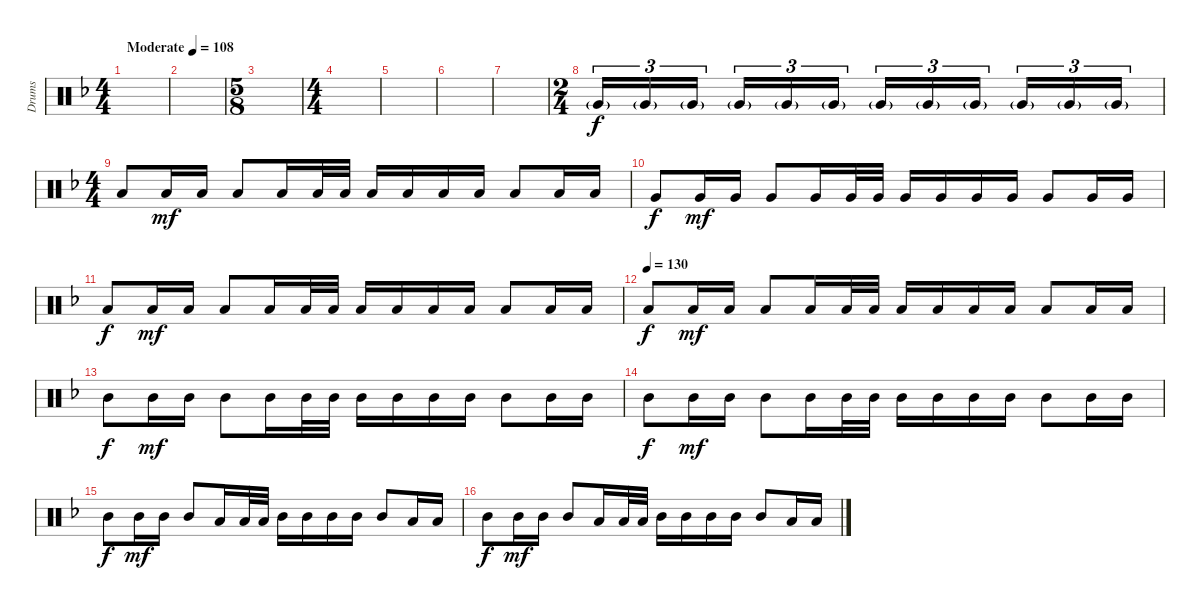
\track ("Drums" "Drums") {instrument percussion}
\staff {score}
\articulation defaults
\ts (4 4)
\tempo (108 "Moderate")
\clef neutral
\ks f
|
|
\ts (5 8)
|
\ts (4 4)
|
|
|
|
\ts (2 4)
"Very Low Tom (hit)"{g}.16{tu (3 2)} "Very Low Tom (hit)"{g}.16{tu (3 2)} "Very Low Tom (hit)"{g}.16{tu (3 2) beam splitsecondary} "Very Low Tom (hit)"{g}.16{tu (3 2)} "Very Low Tom (hit)"{g}.16{tu (3 2)} "Very Low Tom (hit)"{g}.16{tu (3 2)} "Very Low Tom (hit)"{g}.16{tu (3 2)} "Very Low Tom (hit)"{g}.16{tu (3 2)} "Very Low Tom (hit)"{g}.16{tu (3 2) beam splitsecondary} "Very Low Tom (hit)"{g}.16{tu (3 2)} "Very Low Tom (hit)"{g}.16{tu (3 2)} "Very Low Tom (hit)"{g}.16{tu (3 2)} |
\ts (4 4)
"Low Tom (hit)".8{dy f} "Low Tom (hit)".16{dy mf} "Low Tom (hit)".16 "Low Tom (hit)".8 "Low Tom (hit)".16 "Low Tom (hit)".32 "Low Tom (hit)".32 "Low Tom (hit)".16 "Low Tom (hit)".16 "Low Tom (hit)".16 "Low Tom (hit)".16 "Low Tom (hit)".8 "Low Tom (hit)".16 "Low Tom (hit)".16 |
"Very Low Tom (hit)".8{dy f} "Very Low Tom (hit)".16{dy mf} "Very Low Tom (hit)".16 "Very Low Tom (hit)".8 "Very Low Tom (hit)".16 "Very Low Tom (hit)".32 "Very Low Tom (hit)".32 "Very Low Tom (hit)".16 "Very Low Tom (hit)".16 "Very Low Tom (hit)".16 "Very Low Tom (hit)".16 "Very Low Tom (hit)".8 "Very Low Tom (hit)".16 "Very Low Tom (hit)".16 |
"Low Tom (hit)".8{dy f} "Low Tom (hit)".16{dy mf} "Low Tom (hit)".16 "Low Tom (hit)".8 "Low Tom (hit)".16 "Low Tom (hit)".32 "Low Tom (hit)".32 "Low Tom (hit)".16 "Low Tom (hit)".16 "Low Tom (hit)".16 "Low Tom (hit)".16 "Low Tom (hit)".8 "Low Tom (hit)".16 "Low Tom (hit)".16 |
\tempo (130)
"Low Tom (hit)".8{dy f} "Low Tom (hit)".16{dy mf} "Low Tom (hit)".16 "Low Tom (hit)".8 "Low Tom (hit)".16 "Low Tom (hit)".32 "Low Tom (hit)".32 "Low Tom (hit)".16 "Low Tom (hit)".16 "Low Tom (hit)".16 "Low Tom (hit)".16 "Low Tom (hit)".8 "Low Tom (hit)".16 "Low Tom (hit)".16 |
"Mid Tom (hit)".8{dy f} "Mid Tom (hit)".16{dy mf} "Mid Tom (hit)".16 "Mid Tom (hit)".8 "Mid Tom (hit)".16 "Mid Tom (hit)".32 "Mid Tom (hit)".32 "Mid Tom (hit)".16 "Mid Tom (hit)".16 "Mid Tom (hit)".16 "Mid Tom (hit)".16 "Mid Tom (hit)".8 "Mid Tom (hit)".16 "Mid Tom (hit)".16 |
"Mid Tom (hit)".8{dy f} "Mid Tom (hit)".16{dy mf} "Mid Tom (hit)".16 "Mid Tom (hit)".8 "Mid Tom (hit)".16 "Mid Tom (hit)".32 "Mid Tom (hit)".32 "Mid Tom (hit)".16 "Mid Tom (hit)".16 "Mid Tom (hit)".16 "Mid Tom (hit)".16 "Mid Tom (hit)".8 "Mid Tom (hit)".16 "Mid Tom (hit)".16 |
"Mid Tom (hit)".8{dy f} "Mid Tom (hit)".16{dy mf} "Mid Tom (hit)".16 "Mid Tom (hit)".8 "Low Tom (hit)".16 "Low Tom (hit)".32 "Low Tom (hit)".32 "Mid Tom (hit)".16 "Mid Tom (hit)".16 "Mid Tom (hit)".16 "Mid Tom (hit)".16 "Mid Tom (hit)".8 "Low Tom (hit)".16 "Low Tom (hit)".16 |
"Mid Tom (hit)".8{dy f} "Mid Tom (hit)".16{dy mf} "Mid Tom (hit)".16 "Mid Tom (hit)".8 "Low Tom (hit)".16 "Low Tom (hit)".32 "Low Tom (hit)".32 "Mid Tom (hit)".16 "Mid Tom (hit)".16 "Mid Tom (hit)".16 "Mid Tom (hit)".16 "Mid Tom (hit)".8 "Low Tom (hit)".16 "Low Tom (hit)".16
